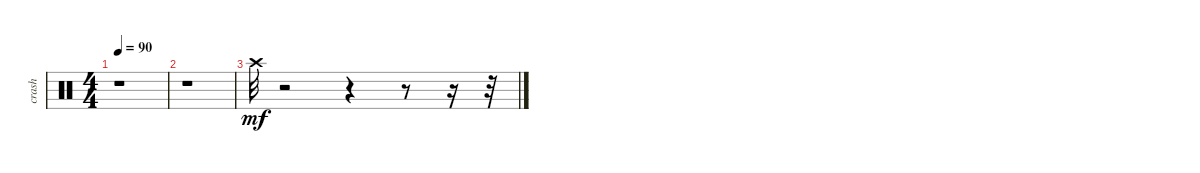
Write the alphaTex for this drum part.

\track ("crash" "crash") {instrument percussion}
\staff {score}
\articulation defaults
\ts (4 4)
\tempo 90
\clef neutral
\ks c
r.1{dy mf} |
r.1 |
"Crash high (hit)".32 r.2 r.4 r.8 r.16 r.32
